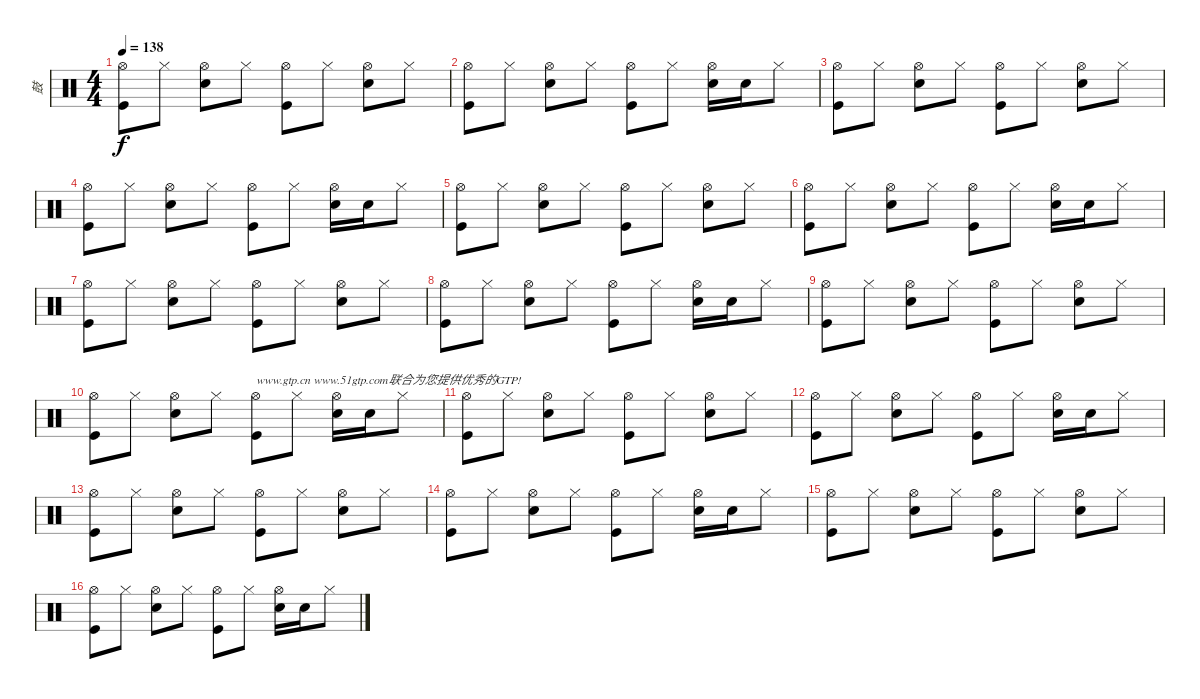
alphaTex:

\track ("鼓" "鼓") {instrument percussion}
\staff {score}
\articulation defaults
\ts (4 4)
\tempo 138
\clef neutral
\ks c
("Hi-Hat (open)" "Kick (hit)").8{dy f} "Hi-Hat (closed)".8 ("Hi-Hat (open)" "Snare (hit) 2").8 "Hi-Hat (closed)".8 ("Hi-Hat (open)" "Kick (hit)").8 "Hi-Hat (closed)".8 ("Hi-Hat (open)" "Snare (hit) 2").8 "Hi-Hat (closed)".8 |
("Hi-Hat (open)" "Kick (hit)").8 "Hi-Hat (closed)".8 ("Hi-Hat (open)" "Snare (hit) 2").8 "Hi-Hat (closed)".8 ("Hi-Hat (open)" "Kick (hit)").8 "Hi-Hat (closed)".8 ("Hi-Hat (open)" "Snare (hit) 2").16 "Snare (hit) 2".16 "Hi-Hat (closed)".8 |
("Hi-Hat (open)" "Kick (hit)").8 "Hi-Hat (closed)".8 ("Hi-Hat (open)" "Snare (hit) 2").8 "Hi-Hat (closed)".8 ("Hi-Hat (open)" "Kick (hit)").8 "Hi-Hat (closed)".8 ("Hi-Hat (open)" "Snare (hit) 2").8 "Hi-Hat (closed)".8 |
("Hi-Hat (open)" "Kick (hit)").8 "Hi-Hat (closed)".8 ("Hi-Hat (open)" "Snare (hit) 2").8 "Hi-Hat (closed)".8 ("Hi-Hat (open)" "Kick (hit)").8 "Hi-Hat (closed)".8 ("Hi-Hat (open)" "Snare (hit) 2").16 "Snare (hit) 2".16 "Hi-Hat (closed)".8 |
("Hi-Hat (open)" "Kick (hit)").8 "Hi-Hat (closed)".8 ("Hi-Hat (open)" "Snare (hit) 2").8 "Hi-Hat (closed)".8 ("Hi-Hat (open)" "Kick (hit)").8 "Hi-Hat (closed)".8 ("Hi-Hat (open)" "Snare (hit) 2").8 "Hi-Hat (closed)".8 |
("Hi-Hat (open)" "Kick (hit)").8 "Hi-Hat (closed)".8 ("Hi-Hat (open)" "Snare (hit) 2").8 "Hi-Hat (closed)".8 ("Hi-Hat (open)" "Kick (hit)").8 "Hi-Hat (closed)".8 ("Hi-Hat (open)" "Snare (hit) 2").16 "Snare (hit) 2".16 "Hi-Hat (closed)".8 |
("Hi-Hat (open)" "Kick (hit)").8 "Hi-Hat (closed)".8 ("Hi-Hat (open)" "Snare (hit) 2").8 "Hi-Hat (closed)".8 ("Hi-Hat (open)" "Kick (hit)").8 "Hi-Hat (closed)".8 ("Hi-Hat (open)" "Snare (hit) 2").8 "Hi-Hat (closed)".8 |
("Hi-Hat (open)" "Kick (hit)").8 "Hi-Hat (closed)".8 ("Hi-Hat (open)" "Snare (hit) 2").8 "Hi-Hat (closed)".8 ("Hi-Hat (open)" "Kick (hit)").8 "Hi-Hat (closed)".8 ("Hi-Hat (open)" "Snare (hit) 2").16 "Snare (hit) 2".16 "Hi-Hat (closed)".8 |
("Hi-Hat (open)" "Kick (hit)").8 "Hi-Hat (closed)".8 ("Hi-Hat (open)" "Snare (hit) 2").8 "Hi-Hat (closed)".8 ("Hi-Hat (open)" "Kick (hit)").8 "Hi-Hat (closed)".8 ("Hi-Hat (open)" "Snare (hit) 2").8 "Hi-Hat (closed)".8 |
("Hi-Hat (open)" "Kick (hit)").8 "Hi-Hat (closed)".8 ("Hi-Hat (open)" "Snare (hit) 2").8 "Hi-Hat (closed)".8 ("Hi-Hat (open)" "Kick (hit)").8{txt "www.gtp.cn www.51gtp.com联合为您提供优秀的GTP!"} "Hi-Hat (closed)".8 ("Hi-Hat (open)" "Snare (hit) 2").16 "Snare (hit) 2".16 "Hi-Hat (closed)".8 |
("Hi-Hat (open)" "Kick (hit)").8 "Hi-Hat (closed)".8 ("Hi-Hat (open)" "Snare (hit) 2").8 "Hi-Hat (closed)".8 ("Hi-Hat (open)" "Kick (hit)").8 "Hi-Hat (closed)".8 ("Hi-Hat (open)" "Snare (hit) 2").8 "Hi-Hat (closed)".8 |
("Hi-Hat (open)" "Kick (hit)").8 "Hi-Hat (closed)".8 ("Hi-Hat (open)" "Snare (hit) 2").8 "Hi-Hat (closed)".8 ("Hi-Hat (open)" "Kick (hit)").8 "Hi-Hat (closed)".8 ("Hi-Hat (open)" "Snare (hit) 2").16 "Snare (hit) 2".16 "Hi-Hat (closed)".8 |
("Hi-Hat (open)" "Kick (hit)").8 "Hi-Hat (closed)".8 ("Hi-Hat (open)" "Snare (hit) 2").8 "Hi-Hat (closed)".8 ("Hi-Hat (open)" "Kick (hit)").8 "Hi-Hat (closed)".8 ("Hi-Hat (open)" "Snare (hit) 2").8 "Hi-Hat (closed)".8 |
("Hi-Hat (open)" "Kick (hit)").8 "Hi-Hat (closed)".8 ("Hi-Hat (open)" "Snare (hit) 2").8 "Hi-Hat (closed)".8 ("Hi-Hat (open)" "Kick (hit)").8 "Hi-Hat (closed)".8 ("Hi-Hat (open)" "Snare (hit) 2").16 "Snare (hit) 2".16 "Hi-Hat (closed)".8 |
("Hi-Hat (open)" "Kick (hit)").8 "Hi-Hat (closed)".8 ("Hi-Hat (open)" "Snare (hit) 2").8 "Hi-Hat (closed)".8 ("Hi-Hat (open)" "Kick (hit)").8 "Hi-Hat (closed)".8 ("Hi-Hat (open)" "Snare (hit) 2").8 "Hi-Hat (closed)".8 |
("Hi-Hat (open)" "Kick (hit)").8 "Hi-Hat (closed)".8 ("Hi-Hat (open)" "Snare (hit) 2").8 "Hi-Hat (closed)".8 ("Hi-Hat (open)" "Kick (hit)").8 "Hi-Hat (closed)".8 ("Hi-Hat (open)" "Snare (hit) 2").16 "Snare (hit) 2".16 "Hi-Hat (closed)".8
